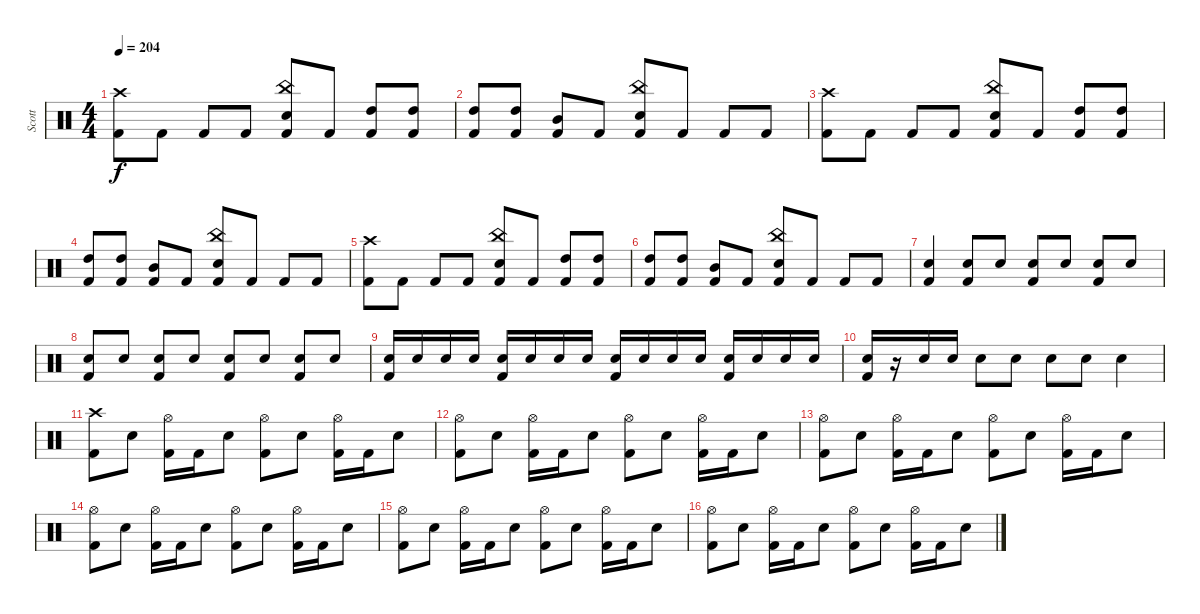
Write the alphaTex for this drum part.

\track ("Scott" "Scott") {instrument percussion}
\staff {score}
\articulation defaults
\ts (4 4)
\tempo 204
\clef neutral
\ks c
("Crash high (hit)" "Kick (hit) 2").8{dy f} "Kick (hit) 2".8 "Kick (hit) 2".8 "Kick (hit) 2".8 ("China (hit)" "Snare (hit) 2" "Kick (hit) 2").8 "Kick (hit) 2".8 ("High Tom (hit)" "Kick (hit) 2").8 ("High Tom (hit)" "Kick (hit) 2").8 |
("High Tom (hit)" "Kick (hit) 2").8 ("High Tom (hit)" "Kick (hit) 2").8 ("Mid Tom (hit)" "Kick (hit) 2").8 "Kick (hit) 2".8 ("China (hit)" "Snare (hit) 2" "Kick (hit) 2").8 "Kick (hit) 2".8 "Kick (hit) 2".8 "Kick (hit) 2".8 |
("Crash high (hit)" "Kick (hit) 2").8 "Kick (hit) 2".8 "Kick (hit) 2".8 "Kick (hit) 2".8 ("China (hit)" "Snare (hit) 2" "Kick (hit) 2").8 "Kick (hit) 2".8 ("High Tom (hit)" "Kick (hit) 2").8 ("High Tom (hit)" "Kick (hit) 2").8 |
("High Tom (hit)" "Kick (hit) 2").8 ("High Tom (hit)" "Kick (hit) 2").8 ("Mid Tom (hit)" "Kick (hit) 2").8 "Kick (hit) 2".8 ("China (hit)" "Snare (hit) 2" "Kick (hit) 2").8 "Kick (hit) 2".8 "Kick (hit) 2".8 "Kick (hit) 2".8 |
("Crash high (hit)" "Kick (hit) 2").8 "Kick (hit) 2".8 "Kick (hit) 2".8 "Kick (hit) 2".8 ("China (hit)" "Snare (hit) 2" "Kick (hit) 2").8 "Kick (hit) 2".8 ("High Tom (hit)" "Kick (hit) 2").8 ("High Tom (hit)" "Kick (hit) 2").8 |
("High Tom (hit)" "Kick (hit) 2").8 ("High Tom (hit)" "Kick (hit) 2").8 ("Mid Tom (hit)" "Kick (hit) 2").8 "Kick (hit) 2".8 ("China (hit)" "Snare (hit) 2" "Kick (hit) 2").8 "Kick (hit) 2".8 "Kick (hit) 2".8 "Kick (hit) 2".8 |
("Snare (hit) 2" "Kick (hit) 2").4 ("Snare (hit) 2" "Kick (hit) 2").8 "Snare (hit) 2".8 ("Snare (hit) 2" "Kick (hit) 2").8 "Snare (hit) 2".8 ("Snare (hit) 2" "Kick (hit) 2").8 "Snare (hit) 2".8 |
("Snare (hit) 2" "Kick (hit) 2").8 "Snare (hit) 2".8 ("Snare (hit) 2" "Kick (hit) 2").8 "Snare (hit) 2".8 ("Snare (hit) 2" "Kick (hit) 2").8 "Snare (hit) 2".8 ("Snare (hit) 2" "Kick (hit) 2").8 "Snare (hit) 2".8 |
("Snare (hit) 2" "Kick (hit) 2").16 "Snare (hit) 2".16 "Snare (hit) 2".16 "Snare (hit) 2".16 ("Snare (hit) 2" "Kick (hit) 2").16 "Snare (hit) 2".16 "Snare (hit) 2".16 "Snare (hit) 2".16 ("Snare (hit) 2" "Kick (hit) 2").16 "Snare (hit) 2".16 "Snare (hit) 2".16 "Snare (hit) 2".16 ("Snare (hit) 2" "Kick (hit) 2").16 "Snare (hit) 2".16 "Snare (hit) 2".16 "Snare (hit) 2".16 |
("Snare (hit) 2" "Kick (hit) 2").16 r.16 "Snare (hit) 2".16 "Snare (hit) 2".16 "Snare (hit) 2".8 "Snare (hit) 2".8 "Snare (hit) 2".8 "Snare (hit) 2".8 "Snare (hit) 2".4 |
("Crash high (hit)" "Kick (hit) 2").8 "Snare (hit) 2".8 ("Hi-Hat (open)" "Kick (hit) 2").16 "Kick (hit) 2".16 "Snare (hit) 2".8 ("Hi-Hat (open)" "Kick (hit) 2").8 "Snare (hit) 2".8 ("Hi-Hat (open)" "Kick (hit) 2").16 "Kick (hit) 2".16 "Snare (hit) 2".8 |
("Hi-Hat (open)" "Kick (hit) 2").8 "Snare (hit) 2".8 ("Hi-Hat (open)" "Kick (hit) 2").16 "Kick (hit) 2".16 "Snare (hit) 2".8 ("Hi-Hat (open)" "Kick (hit) 2").8 "Snare (hit) 2".8 ("Hi-Hat (open)" "Kick (hit) 2").16 "Kick (hit) 2".16 "Snare (hit) 2".8 |
("Hi-Hat (open)" "Kick (hit) 2").8 "Snare (hit) 2".8 ("Hi-Hat (open)" "Kick (hit) 2").16 "Kick (hit) 2".16 "Snare (hit) 2".8 ("Hi-Hat (open)" "Kick (hit) 2").8 "Snare (hit) 2".8 ("Hi-Hat (open)" "Kick (hit) 2").16 "Kick (hit) 2".16 "Snare (hit) 2".8 |
("Hi-Hat (open)" "Kick (hit) 2").8 "Snare (hit) 2".8 ("Hi-Hat (open)" "Kick (hit) 2").16 "Kick (hit) 2".16 "Snare (hit) 2".8 ("Hi-Hat (open)" "Kick (hit) 2").8 "Snare (hit) 2".8 ("Hi-Hat (open)" "Kick (hit) 2").16 "Kick (hit) 2".16 "Snare (hit) 2".8 |
("Hi-Hat (open)" "Kick (hit) 2").8 "Snare (hit) 2".8 ("Hi-Hat (open)" "Kick (hit) 2").16 "Kick (hit) 2".16 "Snare (hit) 2".8 ("Hi-Hat (open)" "Kick (hit) 2").8 "Snare (hit) 2".8 ("Hi-Hat (open)" "Kick (hit) 2").16 "Kick (hit) 2".16 "Snare (hit) 2".8 |
("Hi-Hat (open)" "Kick (hit) 2").8 "Snare (hit) 2".8 ("Hi-Hat (open)" "Kick (hit) 2").16 "Kick (hit) 2".16 "Snare (hit) 2".8 ("Hi-Hat (open)" "Kick (hit) 2").8 "Snare (hit) 2".8 ("Hi-Hat (open)" "Kick (hit) 2").16 "Kick (hit) 2".16 "Snare (hit) 2".8
